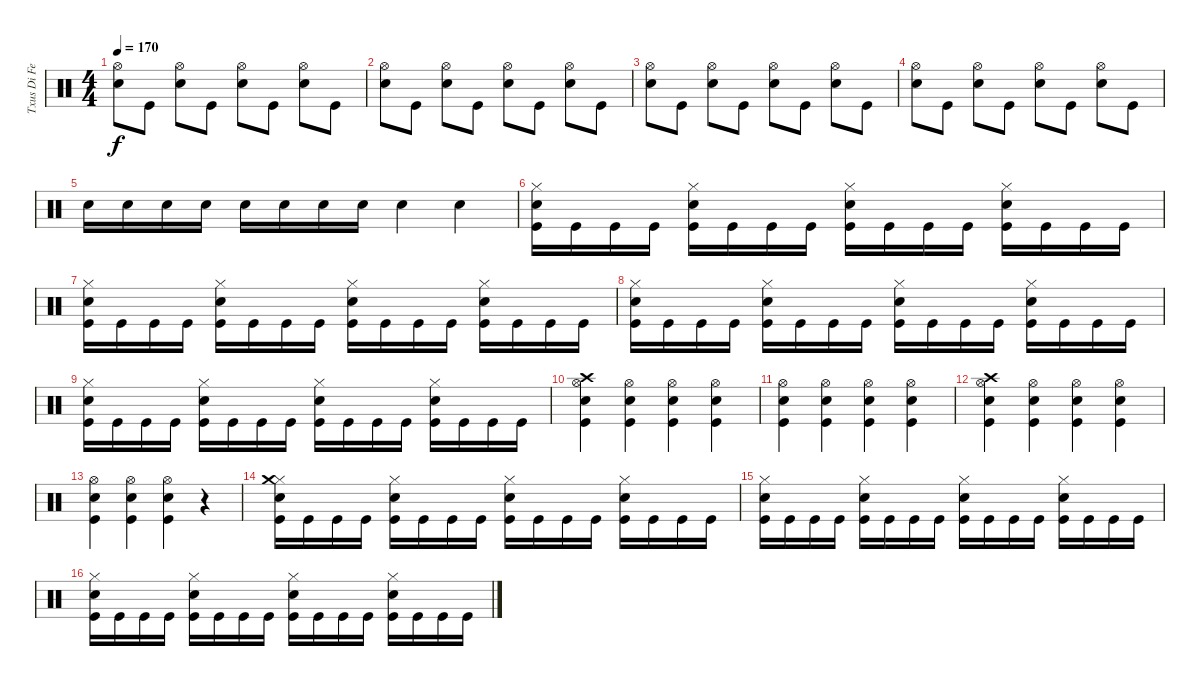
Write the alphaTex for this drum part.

\track ("Txus Di Fellatio" "Txus Di Fe") {instrument percussion}
\staff {score}
\articulation defaults
\ts (4 4)
\tempo 170
\clef neutral
\ks c
("Hi-Hat (open)" "Snare (hit) 2").8{dy f} "Kick (hit)".8 ("Hi-Hat (open)" "Snare (hit) 2").8 "Kick (hit)".8 ("Hi-Hat (open)" "Snare (hit) 2").8 "Kick (hit)".8 ("Hi-Hat (open)" "Snare (hit) 2").8 "Kick (hit)".8 |
("Hi-Hat (open)" "Snare (hit) 2").8 "Kick (hit)".8 ("Hi-Hat (open)" "Snare (hit) 2").8 "Kick (hit)".8 ("Hi-Hat (open)" "Snare (hit) 2").8 "Kick (hit)".8 ("Hi-Hat (open)" "Snare (hit) 2").8 "Kick (hit)".8 |
("Hi-Hat (open)" "Snare (hit) 2").8 "Kick (hit)".8 ("Hi-Hat (open)" "Snare (hit) 2").8 "Kick (hit)".8 ("Hi-Hat (open)" "Snare (hit) 2").8 "Kick (hit)".8 ("Hi-Hat (open)" "Snare (hit) 2").8 "Kick (hit)".8 |
("Hi-Hat (open)" "Snare (hit) 2").8 "Kick (hit)".8 ("Hi-Hat (open)" "Snare (hit) 2").8 "Kick (hit)".8 ("Hi-Hat (open)" "Snare (hit) 2").8 "Kick (hit)".8 ("Hi-Hat (open)" "Snare (hit) 2").8 "Kick (hit)".8 |
"Snare (hit) 2".16 "Snare (hit) 2".16 "Snare (hit) 2".16 "Snare (hit) 2".16 "Snare (hit) 2".16 "Snare (hit) 2".16 "Snare (hit) 2".16 "Snare (hit) 2".16 "Snare (hit) 2".4 "Snare (hit) 2".4 |
("Hi-Hat (closed)" "Snare (hit) 2" "Kick (hit)").16 "Kick (hit)".16 "Kick (hit)".16 "Kick (hit)".16 ("Hi-Hat (closed)" "Snare (hit) 2" "Kick (hit)").16 "Kick (hit)".16 "Kick (hit)".16 "Kick (hit)".16 ("Hi-Hat (closed)" "Snare (hit) 2" "Kick (hit)").16 "Kick (hit)".16 "Kick (hit)".16 "Kick (hit)".16 ("Hi-Hat (closed)" "Snare (hit) 2" "Kick (hit)").16 "Kick (hit)".16 "Kick (hit)".16 "Kick (hit)".16 |
("Hi-Hat (closed)" "Snare (hit) 2" "Kick (hit)").16 "Kick (hit)".16 "Kick (hit)".16 "Kick (hit)".16 ("Hi-Hat (closed)" "Snare (hit) 2" "Kick (hit)").16 "Kick (hit)".16 "Kick (hit)".16 "Kick (hit)".16 ("Hi-Hat (closed)" "Snare (hit) 2" "Kick (hit)").16 "Kick (hit)".16 "Kick (hit)".16 "Kick (hit)".16 ("Hi-Hat (closed)" "Snare (hit) 2" "Kick (hit)").16 "Kick (hit)".16 "Kick (hit)".16 "Kick (hit)".16 |
("Hi-Hat (closed)" "Snare (hit) 2" "Kick (hit)").16 "Kick (hit)".16 "Kick (hit)".16 "Kick (hit)".16 ("Hi-Hat (closed)" "Snare (hit) 2" "Kick (hit)").16 "Kick (hit)".16 "Kick (hit)".16 "Kick (hit)".16 ("Hi-Hat (closed)" "Snare (hit) 2" "Kick (hit)").16 "Kick (hit)".16 "Kick (hit)".16 "Kick (hit)".16 ("Hi-Hat (closed)" "Snare (hit) 2" "Kick (hit)").16 "Kick (hit)".16 "Kick (hit)".16 "Kick (hit)".16 |
("Hi-Hat (closed)" "Snare (hit) 2" "Kick (hit)").16 "Kick (hit)".16 "Kick (hit)".16 "Kick (hit)".16 ("Hi-Hat (closed)" "Snare (hit) 2" "Kick (hit)").16 "Kick (hit)".16 "Kick (hit)".16 "Kick (hit)".16 ("Hi-Hat (closed)" "Snare (hit) 2" "Kick (hit)").16 "Kick (hit)".16 "Kick (hit)".16 "Kick (hit)".16 ("Hi-Hat (closed)" "Snare (hit) 2" "Kick (hit)").16 "Kick (hit)".16 "Kick (hit)".16 "Kick (hit)".16 |
("Hi-Hat (open)" "Snare (hit) 2" "Kick (hit)" "Crash high (hit)").4 ("Hi-Hat (open)" "Snare (hit) 2" "Kick (hit)").4 ("Hi-Hat (open)" "Snare (hit) 2" "Kick (hit)").4 ("Hi-Hat (open)" "Snare (hit) 2" "Kick (hit)").4 |
("Hi-Hat (open)" "Snare (hit) 2" "Kick (hit)").4 ("Hi-Hat (open)" "Snare (hit) 2" "Kick (hit)").4 ("Hi-Hat (open)" "Snare (hit) 2" "Kick (hit)").4 ("Hi-Hat (open)" "Snare (hit) 2" "Kick (hit)").4 |
("Hi-Hat (open)" "Snare (hit) 2" "Kick (hit)" "Crash high (hit)").4 ("Hi-Hat (open)" "Snare (hit) 2" "Kick (hit)").4 ("Hi-Hat (open)" "Snare (hit) 2" "Kick (hit)").4 ("Hi-Hat (open)" "Snare (hit) 2" "Kick (hit)").4 |
("Hi-Hat (open)" "Snare (hit) 2" "Kick (hit)").4 ("Hi-Hat (open)" "Snare (hit) 2" "Kick (hit)").4 ("Hi-Hat (open)" "Snare (hit) 2" "Kick (hit)").4 r.4 |
("Hi-Hat (closed)" "Snare (hit) 2" "Crash medium (hit)" "Kick (hit)").16 "Kick (hit)".16 "Kick (hit)".16 "Kick (hit)".16 ("Hi-Hat (closed)" "Snare (hit) 2" "Kick (hit)").16 "Kick (hit)".16 "Kick (hit)".16 "Kick (hit)".16 ("Hi-Hat (closed)" "Snare (hit) 2" "Kick (hit)").16 "Kick (hit)".16 "Kick (hit)".16 "Kick (hit)".16 ("Hi-Hat (closed)" "Snare (hit) 2" "Kick (hit)").16 "Kick (hit)".16 "Kick (hit)".16 "Kick (hit)".16 |
("Hi-Hat (closed)" "Snare (hit) 2" "Kick (hit)").16 "Kick (hit)".16 "Kick (hit)".16 "Kick (hit)".16 ("Hi-Hat (closed)" "Snare (hit) 2" "Kick (hit)").16 "Kick (hit)".16 "Kick (hit)".16 "Kick (hit)".16 ("Hi-Hat (closed)" "Snare (hit) 2" "Kick (hit)").16 "Kick (hit)".16 "Kick (hit)".16 "Kick (hit)".16 ("Hi-Hat (closed)" "Snare (hit) 2" "Kick (hit)").16 "Kick (hit)".16 "Kick (hit)".16 "Kick (hit)".16 |
("Hi-Hat (closed)" "Snare (hit) 2" "Kick (hit)").16 "Kick (hit)".16 "Kick (hit)".16 "Kick (hit)".16 ("Hi-Hat (closed)" "Snare (hit) 2" "Kick (hit)").16 "Kick (hit)".16 "Kick (hit)".16 "Kick (hit)".16 ("Hi-Hat (closed)" "Snare (hit) 2" "Kick (hit)").16 "Kick (hit)".16 "Kick (hit)".16 "Kick (hit)".16 ("Hi-Hat (closed)" "Snare (hit) 2" "Kick (hit)").16 "Kick (hit)".16 "Kick (hit)".16 "Kick (hit)".16
